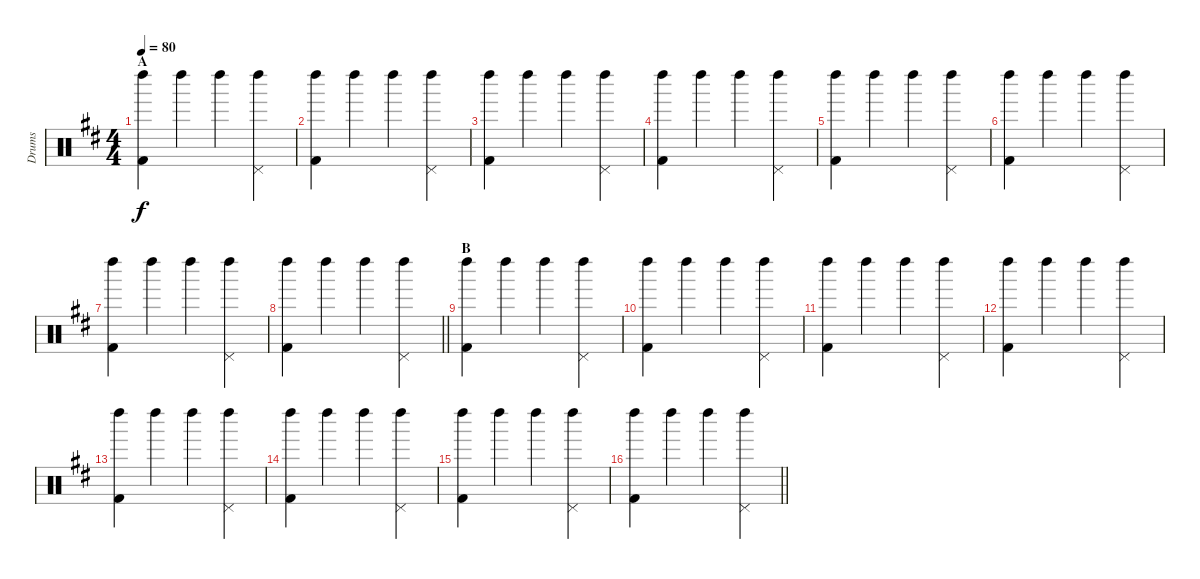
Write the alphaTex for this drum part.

\track ("Drums" "Drums") {instrument percussion}
\staff {score}
\articulation defaults
\ts (4 4)
\section ("" "A")
\tempo 80
\clef neutral
\ks d
("Left Maraca (hit)" "Kick (hit) 2").4{dy f} "Left Maraca (hit)".4 "Left Maraca (hit)".4 ("Left Maraca (hit)" "Pedal Hi-Hat (hit)").4 |
("Left Maraca (hit)" "Kick (hit) 2").4 "Left Maraca (hit)".4 "Left Maraca (hit)".4 ("Left Maraca (hit)" "Pedal Hi-Hat (hit)").4 |
("Left Maraca (hit)" "Kick (hit) 2").4 "Left Maraca (hit)".4 "Left Maraca (hit)".4 ("Left Maraca (hit)" "Pedal Hi-Hat (hit)").4 |
("Left Maraca (hit)" "Kick (hit) 2").4 "Left Maraca (hit)".4 "Left Maraca (hit)".4 ("Left Maraca (hit)" "Pedal Hi-Hat (hit)").4 |
("Left Maraca (hit)" "Kick (hit) 2").4 "Left Maraca (hit)".4 "Left Maraca (hit)".4 ("Left Maraca (hit)" "Pedal Hi-Hat (hit)").4 |
("Left Maraca (hit)" "Kick (hit) 2").4 "Left Maraca (hit)".4 "Left Maraca (hit)".4 ("Left Maraca (hit)" "Pedal Hi-Hat (hit)").4 |
("Left Maraca (hit)" "Kick (hit) 2").4 "Left Maraca (hit)".4 "Left Maraca (hit)".4 ("Left Maraca (hit)" "Pedal Hi-Hat (hit)").4 |
\barLineRight lightlight
("Left Maraca (hit)" "Kick (hit) 2").4 "Left Maraca (hit)".4 "Left Maraca (hit)".4 ("Left Maraca (hit)" "Pedal Hi-Hat (hit)").4 |
\section ("" "B")
("Left Maraca (hit)" "Kick (hit) 2").4 "Left Maraca (hit)".4 "Left Maraca (hit)".4 ("Left Maraca (hit)" "Pedal Hi-Hat (hit)").4 |
("Left Maraca (hit)" "Kick (hit) 2").4 "Left Maraca (hit)".4 "Left Maraca (hit)".4 ("Left Maraca (hit)" "Pedal Hi-Hat (hit)").4 |
("Left Maraca (hit)" "Kick (hit) 2").4 "Left Maraca (hit)".4 "Left Maraca (hit)".4 ("Left Maraca (hit)" "Pedal Hi-Hat (hit)").4 |
("Left Maraca (hit)" "Kick (hit) 2").4 "Left Maraca (hit)".4 "Left Maraca (hit)".4 ("Left Maraca (hit)" "Pedal Hi-Hat (hit)").4 |
("Left Maraca (hit)" "Kick (hit) 2").4 "Left Maraca (hit)".4 "Left Maraca (hit)".4 ("Left Maraca (hit)" "Pedal Hi-Hat (hit)").4 |
("Left Maraca (hit)" "Kick (hit) 2").4 "Left Maraca (hit)".4 "Left Maraca (hit)".4 ("Left Maraca (hit)" "Pedal Hi-Hat (hit)").4 |
("Left Maraca (hit)" "Kick (hit) 2").4 "Left Maraca (hit)".4 "Left Maraca (hit)".4 ("Left Maraca (hit)" "Pedal Hi-Hat (hit)").4 |
\barLineRight lightlight
("Left Maraca (hit)" "Kick (hit) 2").4 "Left Maraca (hit)".4 "Left Maraca (hit)".4 ("Left Maraca (hit)" "Pedal Hi-Hat (hit)").4
